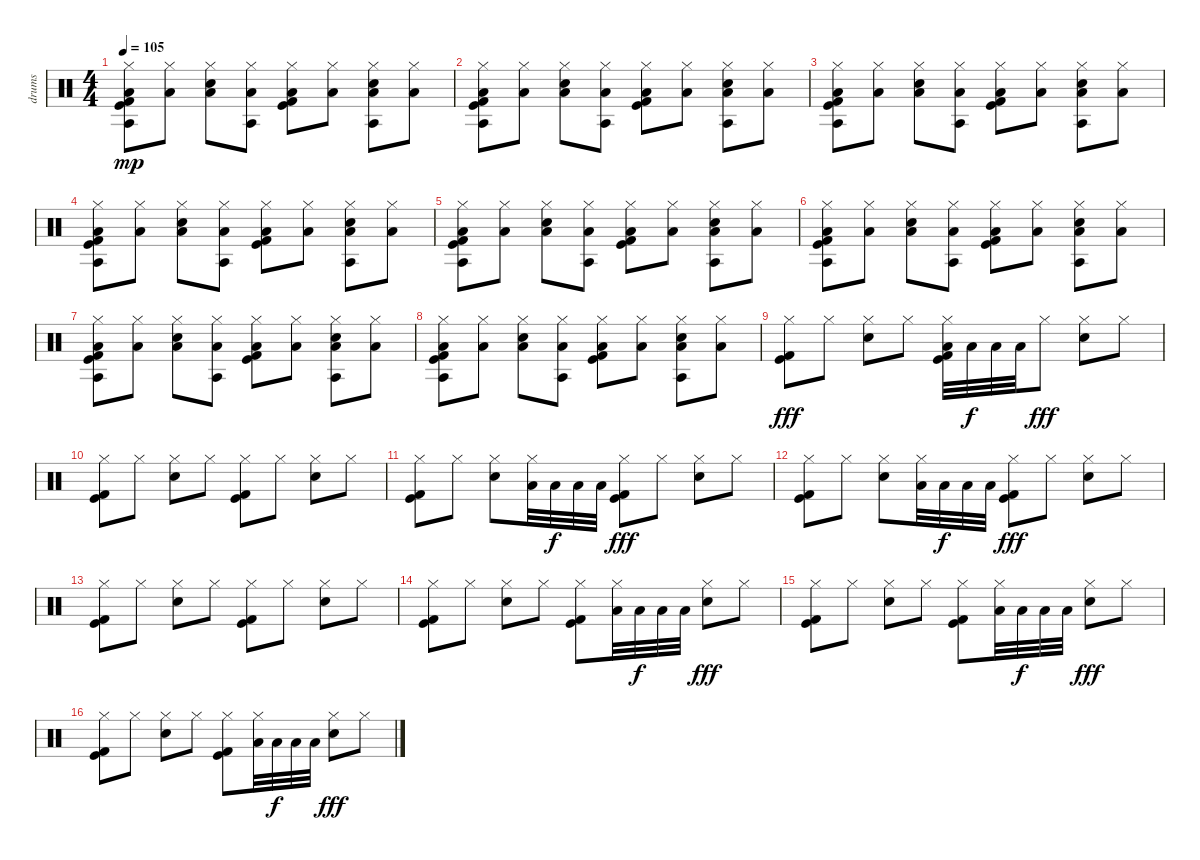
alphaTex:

\track ("drums" "drums") {instrument percussion}
\staff {score}
\articulation defaults
\ts (4 4)
\tempo 105
\clef neutral
\ks c
("Kick (hit)" "Kick (hit) 2" "Hi-Hat (closed)" "Agogo tow (hit)" "Low Floor Tom (hit)").8{dy mp} ("Hi-Hat (closed)" "Low Floor Tom (hit)").8 ("Hi-Hat (closed)" "Electric Snare (hit)" "Low Floor Tom (hit)").8 ("Hi-Hat (closed)" "Agogo tow (hit)" "Low Floor Tom (hit)").8 ("Kick (hit)" "Kick (hit) 2" "Hi-Hat (closed)" "Low Floor Tom (hit)").8 ("Hi-Hat (closed)" "Low Floor Tom (hit)").8 ("Hi-Hat (closed)" "Agogo tow (hit)" "Electric Snare (hit)" "Low Floor Tom (hit)").8 ("Hi-Hat (closed)" "Low Floor Tom (hit)").8 |
("Kick (hit)" "Kick (hit) 2" "Hi-Hat (closed)" "Agogo tow (hit)" "Low Floor Tom (hit)").8 ("Hi-Hat (closed)" "Low Floor Tom (hit)").8 ("Hi-Hat (closed)" "Electric Snare (hit)" "Low Floor Tom (hit)").8 ("Hi-Hat (closed)" "Agogo tow (hit)" "Low Floor Tom (hit)").8 ("Kick (hit)" "Kick (hit) 2" "Hi-Hat (closed)" "Low Floor Tom (hit)").8 ("Hi-Hat (closed)" "Low Floor Tom (hit)").8 ("Hi-Hat (closed)" "Agogo tow (hit)" "Electric Snare (hit)" "Low Floor Tom (hit)").8 ("Hi-Hat (closed)" "Low Floor Tom (hit)").8 |
("Kick (hit)" "Kick (hit) 2" "Agogo tow (hit)" "Hi-Hat (closed)" "Low Floor Tom (hit)").8 ("Hi-Hat (closed)" "Low Floor Tom (hit)").8 ("Hi-Hat (closed)" "Electric Snare (hit)" "Low Floor Tom (hit)").8 ("Agogo tow (hit)" "Hi-Hat (closed)" "Low Floor Tom (hit)").8 ("Kick (hit)" "Kick (hit) 2" "Hi-Hat (closed)" "Low Floor Tom (hit)").8 ("Hi-Hat (closed)" "Low Floor Tom (hit)").8 ("Agogo tow (hit)" "Hi-Hat (closed)" "Electric Snare (hit)" "Low Floor Tom (hit)").8 ("Hi-Hat (closed)" "Low Floor Tom (hit)").8 |
("Kick (hit)" "Kick (hit) 2" "Hi-Hat (closed)" "Agogo tow (hit)" "Low Floor Tom (hit)").8 ("Hi-Hat (closed)" "Low Floor Tom (hit)").8 ("Hi-Hat (closed)" "Electric Snare (hit)" "Low Floor Tom (hit)").8 ("Hi-Hat (closed)" "Agogo tow (hit)" "Low Floor Tom (hit)").8 ("Kick (hit)" "Kick (hit) 2" "Hi-Hat (closed)" "Low Floor Tom (hit)").8 ("Hi-Hat (closed)" "Low Floor Tom (hit)").8 ("Hi-Hat (closed)" "Agogo tow (hit)" "Electric Snare (hit)" "Low Floor Tom (hit)").8 ("Hi-Hat (closed)" "Low Floor Tom (hit)").8 |
("Kick (hit)" "Kick (hit) 2" "Agogo tow (hit)" "Hi-Hat (closed)" "Low Floor Tom (hit)").8 ("Hi-Hat (closed)" "Low Floor Tom (hit)").8 ("Hi-Hat (closed)" "Electric Snare (hit)" "Low Floor Tom (hit)").8 ("Agogo tow (hit)" "Hi-Hat (closed)" "Low Floor Tom (hit)").8 ("Kick (hit)" "Kick (hit) 2" "Hi-Hat (closed)" "Low Floor Tom (hit)").8 ("Hi-Hat (closed)" "Low Floor Tom (hit)").8 ("Agogo tow (hit)" "Hi-Hat (closed)" "Electric Snare (hit)" "Low Floor Tom (hit)").8 ("Hi-Hat (closed)" "Low Floor Tom (hit)").8 |
("Kick (hit)" "Kick (hit) 2" "Agogo tow (hit)" "Hi-Hat (closed)" "Low Floor Tom (hit)").8 ("Hi-Hat (closed)" "Low Floor Tom (hit)").8 ("Hi-Hat (closed)" "Electric Snare (hit)" "Low Floor Tom (hit)").8 ("Agogo tow (hit)" "Hi-Hat (closed)" "Low Floor Tom (hit)").8 ("Kick (hit)" "Kick (hit) 2" "Hi-Hat (closed)" "Low Floor Tom (hit)").8 ("Hi-Hat (closed)" "Low Floor Tom (hit)").8 ("Agogo tow (hit)" "Hi-Hat (closed)" "Electric Snare (hit)" "Low Floor Tom (hit)").8 ("Hi-Hat (closed)" "Low Floor Tom (hit)").8 |
("Kick (hit)" "Kick (hit) 2" "Agogo tow (hit)" "Hi-Hat (closed)" "Low Floor Tom (hit)").8 ("Hi-Hat (closed)" "Low Floor Tom (hit)").8 ("Hi-Hat (closed)" "Electric Snare (hit)" "Low Floor Tom (hit)").8 ("Agogo tow (hit)" "Hi-Hat (closed)" "Low Floor Tom (hit)").8 ("Kick (hit)" "Kick (hit) 2" "Hi-Hat (closed)" "Low Floor Tom (hit)").8 ("Hi-Hat (closed)" "Low Floor Tom (hit)").8 ("Agogo tow (hit)" "Hi-Hat (closed)" "Electric Snare (hit)" "Low Floor Tom (hit)").8 ("Hi-Hat (closed)" "Low Floor Tom (hit)").8 |
("Kick (hit)" "Kick (hit) 2" "Hi-Hat (closed)" "Agogo tow (hit)" "Low Floor Tom (hit)").8 ("Hi-Hat (closed)" "Low Floor Tom (hit)").8 ("Hi-Hat (closed)" "Electric Snare (hit)" "Low Floor Tom (hit)").8 ("Hi-Hat (closed)" "Agogo tow (hit)" "Low Floor Tom (hit)").8 ("Kick (hit)" "Kick (hit) 2" "Hi-Hat (closed)" "Low Floor Tom (hit)").8 ("Hi-Hat (closed)" "Low Floor Tom (hit)").8 ("Hi-Hat (closed)" "Agogo tow (hit)" "Electric Snare (hit)" "Low Floor Tom (hit)").8 ("Hi-Hat (closed)" "Low Floor Tom (hit)").8 |
("Kick (hit)" "Kick (hit) 2" "Hi-Hat (closed)").8{dy fff} "Hi-Hat (closed)".8 ("Hi-Hat (closed)" "Electric Snare (hit)").8 "Hi-Hat (closed)".8 ("Kick (hit)" "Kick (hit) 2" "Hi-Hat (closed)" "Low Floor Tom (hit)").32 "Low Floor Tom (hit)".32{dy f} "Low Floor Tom (hit)".32 "Low Floor Tom (hit)".32 "Hi-Hat (closed)".8{dy fff} ("Hi-Hat (closed)" "Electric Snare (hit)").8 "Hi-Hat (closed)".8 |
("Kick (hit)" "Kick (hit) 2" "Hi-Hat (closed)").8 "Hi-Hat (closed)".8 ("Hi-Hat (closed)" "Electric Snare (hit)").8 "Hi-Hat (closed)".8 ("Kick (hit)" "Kick (hit) 2" "Hi-Hat (closed)").8 "Hi-Hat (closed)".8 ("Hi-Hat (closed)" "Electric Snare (hit)").8 "Hi-Hat (closed)".8 |
("Kick (hit)" "Kick (hit) 2" "Hi-Hat (closed)").8 "Hi-Hat (closed)".8 ("Hi-Hat (closed)" "Electric Snare (hit)").8 ("Low Floor Tom (hit)" "Hi-Hat (closed)").32 "Low Floor Tom (hit)".32{dy f} "Low Floor Tom (hit)".32 "Low Floor Tom (hit)".32 ("Kick (hit)" "Kick (hit) 2" "Hi-Hat (closed)").8{dy fff} "Hi-Hat (closed)".8 ("Hi-Hat (closed)" "Electric Snare (hit)").8 "Hi-Hat (closed)".8 |
("Kick (hit)" "Kick (hit) 2" "Hi-Hat (closed)").8 "Hi-Hat (closed)".8 ("Hi-Hat (closed)" "Electric Snare (hit)").8 ("Hi-Hat (closed)" "Low Floor Tom (hit)").32 "Low Floor Tom (hit)".32{dy f} "Low Floor Tom (hit)".32 "Low Floor Tom (hit)".32 ("Kick (hit)" "Kick (hit) 2" "Hi-Hat (closed)").8{dy fff} "Hi-Hat (closed)".8 ("Hi-Hat (closed)" "Electric Snare (hit)").8 "Hi-Hat (closed)".8 |
("Kick (hit)" "Kick (hit) 2" "Hi-Hat (closed)").8 "Hi-Hat (closed)".8 ("Hi-Hat (closed)" "Electric Snare (hit)").8 "Hi-Hat (closed)".8 ("Kick (hit)" "Kick (hit) 2" "Hi-Hat (closed)").8 "Hi-Hat (closed)".8 ("Hi-Hat (closed)" "Electric Snare (hit)").8 "Hi-Hat (closed)".8 |
("Kick (hit)" "Kick (hit) 2" "Hi-Hat (closed)").8 "Hi-Hat (closed)".8 ("Hi-Hat (closed)" "Electric Snare (hit)").8 "Hi-Hat (closed)".8 ("Kick (hit)" "Kick (hit) 2" "Hi-Hat (closed)").8 ("Hi-Hat (closed)" "Low Floor Tom (hit)").32 "Low Floor Tom (hit)".32{dy f} "Low Floor Tom (hit)".32 "Low Floor Tom (hit)".32 ("Hi-Hat (closed)" "Electric Snare (hit)").8{dy fff} "Hi-Hat (closed)".8 |
("Kick (hit)" "Kick (hit) 2" "Hi-Hat (closed)").8 "Hi-Hat (closed)".8 ("Hi-Hat (closed)" "Electric Snare (hit)").8 "Hi-Hat (closed)".8 ("Kick (hit)" "Kick (hit) 2" "Hi-Hat (closed)").8 ("Hi-Hat (closed)" "Low Floor Tom (hit)").32 "Low Floor Tom (hit)".32{dy f} "Low Floor Tom (hit)".32 "Low Floor Tom (hit)".32 ("Hi-Hat (closed)" "Electric Snare (hit)").8{dy fff} "Hi-Hat (closed)".8 |
("Kick (hit)" "Kick (hit) 2" "Hi-Hat (closed)").8 "Hi-Hat (closed)".8 ("Hi-Hat (closed)" "Electric Snare (hit)").8 "Hi-Hat (closed)".8 ("Kick (hit)" "Kick (hit) 2" "Hi-Hat (closed)").8 ("Hi-Hat (closed)" "Low Floor Tom (hit)").32 "Low Floor Tom (hit)".32{dy f} "Low Floor Tom (hit)".32 "Low Floor Tom (hit)".32 ("Hi-Hat (closed)" "Electric Snare (hit)").8{dy fff} "Hi-Hat (closed)".8
